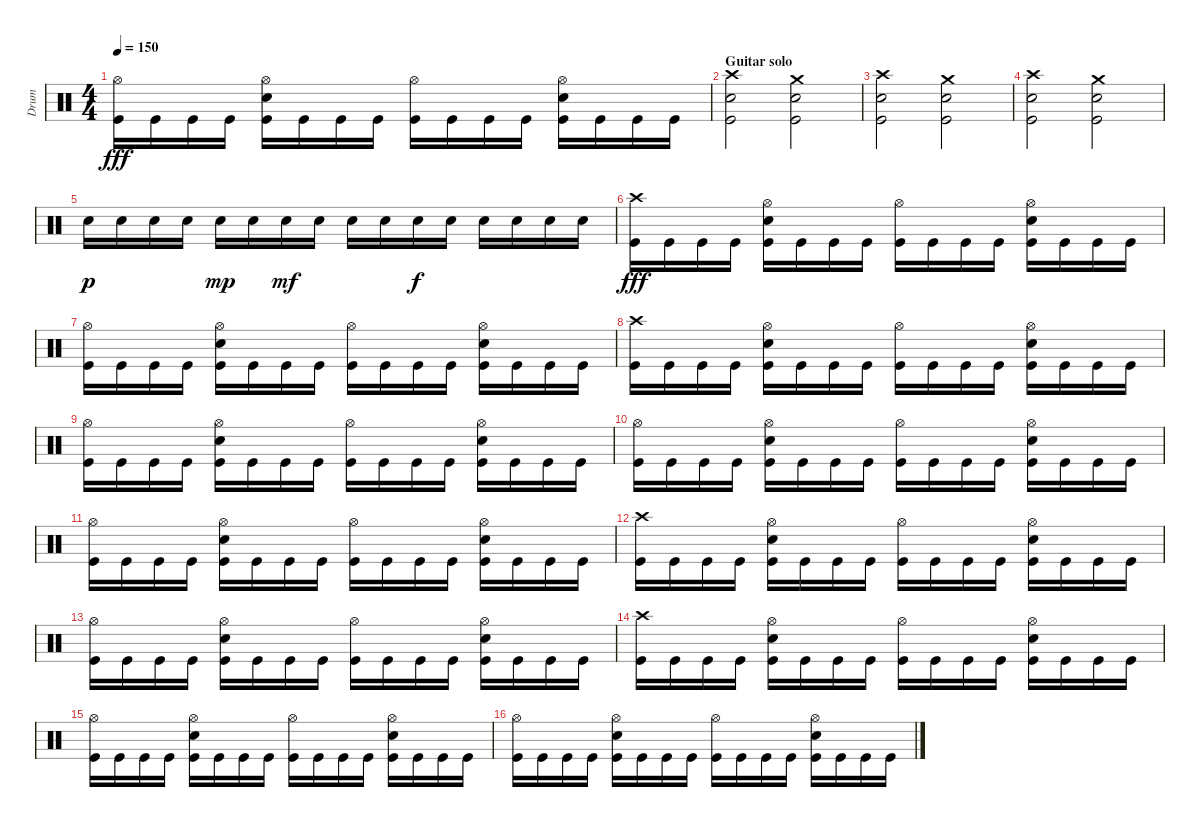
\track ("Drum" "Drum") {instrument percussion}
\staff {score}
\articulation defaults
\ts (4 4)
\tempo 150
\clef neutral
\ks c
("Hi-Hat (open)" "Kick (hit)").16{dy fff} "Kick (hit)".16 "Kick (hit)".16 "Kick (hit)".16 ("Hi-Hat (open)" "Snare (hit) 2" "Kick (hit)").16 "Kick (hit)".16 "Kick (hit)".16 "Kick (hit)".16 ("Hi-Hat (open)" "Kick (hit)").16 "Kick (hit)".16 "Kick (hit)".16 "Kick (hit)".16 ("Hi-Hat (open)" "Snare (hit) 2" "Kick (hit)").16 "Kick (hit)".16 "Kick (hit)".16 "Kick (hit)".16 |
\section ("" "Guitar solo")
("Crash high (hit)" "Snare (hit) 2" "Kick (hit)").2 ("Crash medium (hit)" "Snare (hit) 2" "Kick (hit)").2 |
("Crash high (hit)" "Snare (hit) 2" "Kick (hit)").2 ("Crash medium (hit)" "Snare (hit) 2" "Kick (hit)").2 |
("Crash high (hit)" "Snare (hit) 2" "Kick (hit)").2 ("Crash medium (hit)" "Snare (hit) 2" "Kick (hit)").2 |
"Snare (hit) 2".16{dy p} "Snare (hit) 2".16 "Snare (hit) 2".16 "Snare (hit) 2".16 "Snare (hit) 2".16{dy mp} "Snare (hit) 2".16 "Snare (hit) 2".16{dy mf} "Snare (hit) 2".16 "Snare (hit) 2".16 "Snare (hit) 2".16 "Snare (hit) 2".16{dy f} "Snare (hit) 2".16 "Snare (hit) 2".16 "Snare (hit) 2".16 "Snare (hit) 2".16 "Snare (hit) 2".16 |
("Crash high (hit)" "Kick (hit)").16{dy fff} "Kick (hit)".16 "Kick (hit)".16 "Kick (hit)".16 ("Hi-Hat (open)" "Snare (hit) 2" "Kick (hit)").16 "Kick (hit)".16 "Kick (hit)".16 "Kick (hit)".16 ("Hi-Hat (open)" "Kick (hit)").16 "Kick (hit)".16 "Kick (hit)".16 "Kick (hit)".16 ("Hi-Hat (open)" "Snare (hit) 2" "Kick (hit)").16 "Kick (hit)".16 "Kick (hit)".16 "Kick (hit)".16 |
("Hi-Hat (open)" "Kick (hit)").16 "Kick (hit)".16 "Kick (hit)".16 "Kick (hit)".16 ("Hi-Hat (open)" "Snare (hit) 2" "Kick (hit)").16 "Kick (hit)".16 "Kick (hit)".16 "Kick (hit)".16 ("Hi-Hat (open)" "Kick (hit)").16 "Kick (hit)".16 "Kick (hit)".16 "Kick (hit)".16 ("Hi-Hat (open)" "Snare (hit) 2" "Kick (hit)").16 "Kick (hit)".16 "Kick (hit)".16 "Kick (hit)".16 |
("Crash high (hit)" "Kick (hit)").16 "Kick (hit)".16 "Kick (hit)".16 "Kick (hit)".16 ("Hi-Hat (open)" "Snare (hit) 2" "Kick (hit)").16 "Kick (hit)".16 "Kick (hit)".16 "Kick (hit)".16 ("Hi-Hat (open)" "Kick (hit)").16 "Kick (hit)".16 "Kick (hit)".16 "Kick (hit)".16 ("Hi-Hat (open)" "Snare (hit) 2" "Kick (hit)").16 "Kick (hit)".16 "Kick (hit)".16 "Kick (hit)".16 |
("Hi-Hat (open)" "Kick (hit)").16 "Kick (hit)".16 "Kick (hit)".16 "Kick (hit)".16 ("Hi-Hat (open)" "Snare (hit) 2" "Kick (hit)").16 "Kick (hit)".16 "Kick (hit)".16 "Kick (hit)".16 ("Hi-Hat (open)" "Kick (hit)").16 "Kick (hit)".16 "Kick (hit)".16 "Kick (hit)".16 ("Hi-Hat (open)" "Snare (hit) 2" "Kick (hit)").16 "Kick (hit)".16 "Kick (hit)".16 "Kick (hit)".16 |
("Hi-Hat (open)" "Kick (hit)").16 "Kick (hit)".16 "Kick (hit)".16 "Kick (hit)".16 ("Hi-Hat (open)" "Snare (hit) 2" "Kick (hit)").16 "Kick (hit)".16 "Kick (hit)".16 "Kick (hit)".16 ("Hi-Hat (open)" "Kick (hit)").16 "Kick (hit)".16 "Kick (hit)".16 "Kick (hit)".16 ("Hi-Hat (open)" "Snare (hit) 2" "Kick (hit)").16 "Kick (hit)".16 "Kick (hit)".16 "Kick (hit)".16 |
("Hi-Hat (open)" "Kick (hit)").16 "Kick (hit)".16 "Kick (hit)".16 "Kick (hit)".16 ("Hi-Hat (open)" "Snare (hit) 2" "Kick (hit)").16 "Kick (hit)".16 "Kick (hit)".16 "Kick (hit)".16 ("Hi-Hat (open)" "Kick (hit)").16 "Kick (hit)".16 "Kick (hit)".16 "Kick (hit)".16 ("Hi-Hat (open)" "Snare (hit) 2" "Kick (hit)").16 "Kick (hit)".16 "Kick (hit)".16 "Kick (hit)".16 |
("Crash high (hit)" "Kick (hit)").16 "Kick (hit)".16 "Kick (hit)".16 "Kick (hit)".16 ("Hi-Hat (open)" "Snare (hit) 2" "Kick (hit)").16 "Kick (hit)".16 "Kick (hit)".16 "Kick (hit)".16 ("Hi-Hat (open)" "Kick (hit)").16 "Kick (hit)".16 "Kick (hit)".16 "Kick (hit)".16 ("Hi-Hat (open)" "Snare (hit) 2" "Kick (hit)").16 "Kick (hit)".16 "Kick (hit)".16 "Kick (hit)".16 |
("Hi-Hat (open)" "Kick (hit)").16 "Kick (hit)".16 "Kick (hit)".16 "Kick (hit)".16 ("Hi-Hat (open)" "Snare (hit) 2" "Kick (hit)").16 "Kick (hit)".16 "Kick (hit)".16 "Kick (hit)".16 ("Hi-Hat (open)" "Kick (hit)").16 "Kick (hit)".16 "Kick (hit)".16 "Kick (hit)".16 ("Hi-Hat (open)" "Snare (hit) 2" "Kick (hit)").16 "Kick (hit)".16 "Kick (hit)".16 "Kick (hit)".16 |
("Crash high (hit)" "Kick (hit)").16 "Kick (hit)".16 "Kick (hit)".16 "Kick (hit)".16 ("Hi-Hat (open)" "Snare (hit) 2" "Kick (hit)").16 "Kick (hit)".16 "Kick (hit)".16 "Kick (hit)".16 ("Hi-Hat (open)" "Kick (hit)").16 "Kick (hit)".16 "Kick (hit)".16 "Kick (hit)".16 ("Hi-Hat (open)" "Snare (hit) 2" "Kick (hit)").16 "Kick (hit)".16 "Kick (hit)".16 "Kick (hit)".16 |
("Hi-Hat (open)" "Kick (hit)").16 "Kick (hit)".16 "Kick (hit)".16 "Kick (hit)".16 ("Hi-Hat (open)" "Snare (hit) 2" "Kick (hit)").16 "Kick (hit)".16 "Kick (hit)".16 "Kick (hit)".16 ("Hi-Hat (open)" "Kick (hit)").16 "Kick (hit)".16 "Kick (hit)".16 "Kick (hit)".16 ("Hi-Hat (open)" "Snare (hit) 2" "Kick (hit)").16 "Kick (hit)".16 "Kick (hit)".16 "Kick (hit)".16 |
("Hi-Hat (open)" "Kick (hit)").16 "Kick (hit)".16 "Kick (hit)".16 "Kick (hit)".16 ("Hi-Hat (open)" "Snare (hit) 2" "Kick (hit)").16 "Kick (hit)".16 "Kick (hit)".16 "Kick (hit)".16 ("Hi-Hat (open)" "Kick (hit)").16 "Kick (hit)".16 "Kick (hit)".16 "Kick (hit)".16 ("Hi-Hat (open)" "Snare (hit) 2" "Kick (hit)").16 "Kick (hit)".16 "Kick (hit)".16 "Kick (hit)".16
